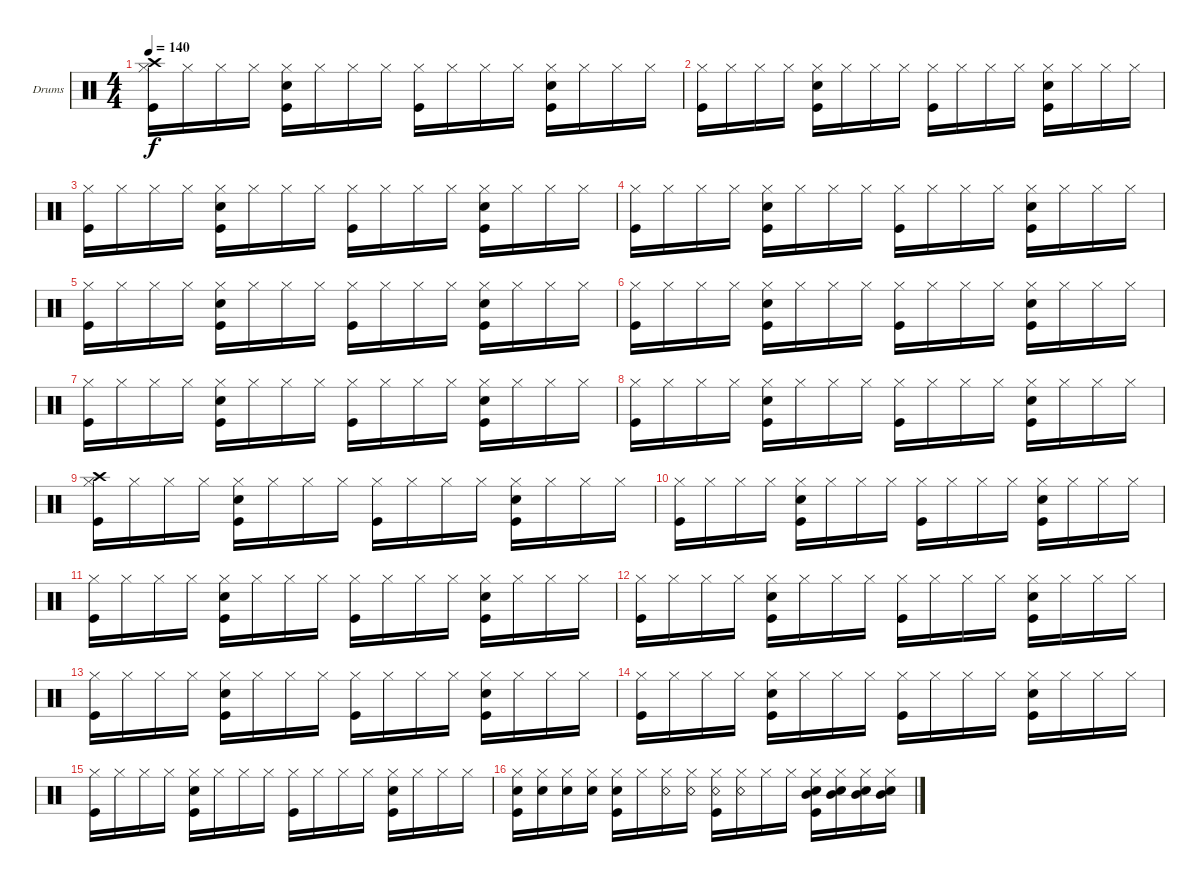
\defaultSystemsLayout 4
\bracketExtendMode groupsimilarinstruments
\firstSystemTrackNameOrientation horizontal
\otherSystemsTrackNameOrientation horizontal
\track ("Drumkit" "Drums") {instrument percussion}
\staff {score}
\articulation defaults
\ts (4 4)
\tempo 140
\clef neutral
\scale
0.472222
\ks c
("Hi-Hat (closed)" "Kick (hit)" "Crash high (hit)").16{dy f} "Hi-Hat (closed)".16 "Hi-Hat (closed)".16 "Hi-Hat (closed)".16 ("Hi-Hat (closed)" "Kick (hit)" "Snare (hit) 2").16 "Hi-Hat (closed)".16 "Hi-Hat (closed)".16 "Hi-Hat (closed)".16 ("Hi-Hat (closed)" "Kick (hit)").16 "Hi-Hat (closed)".16 "Hi-Hat (closed)".16 "Hi-Hat (closed)".16 ("Hi-Hat (closed)" "Kick (hit)" "Snare (hit) 2").16 "Hi-Hat (closed)".16 "Hi-Hat (closed)".16 "Hi-Hat (closed)".16 |
\scale
0.263889 ("Hi-Hat (closed)" "Kick (hit)").16 "Hi-Hat (closed)".16 "Hi-Hat (closed)".16 "Hi-Hat (closed)".16 ("Hi-Hat (closed)" "Kick (hit)" "Snare (hit) 2").16 "Hi-Hat (closed)".16 "Hi-Hat (closed)".16 "Hi-Hat (closed)".16 ("Hi-Hat (closed)" "Kick (hit)").16 "Hi-Hat (closed)".16 "Hi-Hat (closed)".16 "Hi-Hat (closed)".16 ("Hi-Hat (closed)" "Kick (hit)" "Snare (hit) 2").16 "Hi-Hat (closed)".16 "Hi-Hat (closed)".16 "Hi-Hat (closed)".16 |
\scale
0.263889 ("Hi-Hat (closed)" "Kick (hit)").16 "Hi-Hat (closed)".16 "Hi-Hat (closed)".16 "Hi-Hat (closed)".16 ("Hi-Hat (closed)" "Kick (hit)" "Snare (hit) 2").16 "Hi-Hat (closed)".16 "Hi-Hat (closed)".16 "Hi-Hat (closed)".16 ("Hi-Hat (closed)" "Kick (hit)").16 "Hi-Hat (closed)".16 "Hi-Hat (closed)".16 "Hi-Hat (closed)".16 ("Hi-Hat (closed)" "Kick (hit)" "Snare (hit) 2").16 "Hi-Hat (closed)".16 "Hi-Hat (closed)".16 "Hi-Hat (closed)".16 |
\scale
0.333333 ("Hi-Hat (closed)" "Kick (hit)").16 "Hi-Hat (closed)".16 "Hi-Hat (closed)".16 "Hi-Hat (closed)".16 ("Hi-Hat (closed)" "Kick (hit)" "Snare (hit) 2").16 "Hi-Hat (closed)".16 "Hi-Hat (closed)".16 "Hi-Hat (closed)".16 ("Hi-Hat (closed)" "Kick (hit)").16 "Hi-Hat (closed)".16 "Hi-Hat (closed)".16 "Hi-Hat (closed)".16 ("Hi-Hat (closed)" "Kick (hit)" "Snare (hit) 2").16 "Hi-Hat (closed)".16 "Hi-Hat (closed)".16 "Hi-Hat (closed)".16 |
\scale
0.333333 ("Hi-Hat (closed)" "Kick (hit)").16 "Hi-Hat (closed)".16 "Hi-Hat (closed)".16 "Hi-Hat (closed)".16 ("Hi-Hat (closed)" "Kick (hit)" "Snare (hit) 2").16 "Hi-Hat (closed)".16 "Hi-Hat (closed)".16 "Hi-Hat (closed)".16 ("Hi-Hat (closed)" "Kick (hit)").16 "Hi-Hat (closed)".16 "Hi-Hat (closed)".16 "Hi-Hat (closed)".16 ("Hi-Hat (closed)" "Kick (hit)" "Snare (hit) 2").16 "Hi-Hat (closed)".16 "Hi-Hat (closed)".16 "Hi-Hat (closed)".16 |
\scale
0.333333 ("Hi-Hat (closed)" "Kick (hit)").16 "Hi-Hat (closed)".16 "Hi-Hat (closed)".16 "Hi-Hat (closed)".16 ("Hi-Hat (closed)" "Kick (hit)" "Snare (hit) 2").16 "Hi-Hat (closed)".16 "Hi-Hat (closed)".16 "Hi-Hat (closed)".16 ("Hi-Hat (closed)" "Kick (hit)").16 "Hi-Hat (closed)".16 "Hi-Hat (closed)".16 "Hi-Hat (closed)".16 ("Hi-Hat (closed)" "Kick (hit)" "Snare (hit) 2").16 "Hi-Hat (closed)".16 "Hi-Hat (closed)".16 "Hi-Hat (closed)".16 |
\scale
0.333333 ("Hi-Hat (closed)" "Kick (hit)").16 "Hi-Hat (closed)".16 "Hi-Hat (closed)".16 "Hi-Hat (closed)".16 ("Hi-Hat (closed)" "Kick (hit)" "Snare (hit) 2").16 "Hi-Hat (closed)".16 "Hi-Hat (closed)".16 "Hi-Hat (closed)".16 ("Hi-Hat (closed)" "Kick (hit)").16 "Hi-Hat (closed)".16 "Hi-Hat (closed)".16 "Hi-Hat (closed)".16 ("Hi-Hat (closed)" "Kick (hit)" "Snare (hit) 2").16 "Hi-Hat (closed)".16 "Hi-Hat (closed)".16 "Hi-Hat (closed)".16 |
\scale
0.333333 ("Hi-Hat (closed)" "Kick (hit)").16 "Hi-Hat (closed)".16 "Hi-Hat (closed)".16 "Hi-Hat (closed)".16 ("Hi-Hat (closed)" "Kick (hit)" "Snare (hit) 2").16 "Hi-Hat (closed)".16 "Hi-Hat (closed)".16 "Hi-Hat (closed)".16 ("Hi-Hat (closed)" "Kick (hit)").16 "Hi-Hat (closed)".16 "Hi-Hat (closed)".16 "Hi-Hat (closed)".16 ("Hi-Hat (closed)" "Kick (hit)" "Snare (hit) 2").16 "Hi-Hat (closed)".16 "Hi-Hat (closed)".16 "Hi-Hat (closed)".16 |
\scale
0.333333 ("Hi-Hat (closed)" "Kick (hit)" "Crash high (hit)").16 "Hi-Hat (closed)".16 "Hi-Hat (closed)".16 "Hi-Hat (closed)".16 ("Hi-Hat (closed)" "Kick (hit)" "Snare (hit) 2").16 "Hi-Hat (closed)".16 "Hi-Hat (closed)".16 "Hi-Hat (closed)".16 ("Hi-Hat (closed)" "Kick (hit)").16 "Hi-Hat (closed)".16 "Hi-Hat (closed)".16 "Hi-Hat (closed)".16 ("Hi-Hat (closed)" "Kick (hit)" "Snare (hit) 2").16 "Hi-Hat (closed)".16 "Hi-Hat (closed)".16 "Hi-Hat (closed)".16 |
\scale
0.333333 ("Hi-Hat (closed)" "Kick (hit)").16 "Hi-Hat (closed)".16 "Hi-Hat (closed)".16 "Hi-Hat (closed)".16 ("Hi-Hat (closed)" "Kick (hit)" "Snare (hit) 2").16 "Hi-Hat (closed)".16 "Hi-Hat (closed)".16 "Hi-Hat (closed)".16 ("Hi-Hat (closed)" "Kick (hit)").16 "Hi-Hat (closed)".16 "Hi-Hat (closed)".16 "Hi-Hat (closed)".16 ("Hi-Hat (closed)" "Kick (hit)" "Snare (hit) 2").16 "Hi-Hat (closed)".16 "Hi-Hat (closed)".16 "Hi-Hat (closed)".16 |
\scale
0.333333 ("Hi-Hat (closed)" "Kick (hit)").16 "Hi-Hat (closed)".16 "Hi-Hat (closed)".16 "Hi-Hat (closed)".16 ("Hi-Hat (closed)" "Kick (hit)" "Snare (hit) 2").16 "Hi-Hat (closed)".16 "Hi-Hat (closed)".16 "Hi-Hat (closed)".16 ("Hi-Hat (closed)" "Kick (hit)").16 "Hi-Hat (closed)".16 "Hi-Hat (closed)".16 "Hi-Hat (closed)".16 ("Hi-Hat (closed)" "Kick (hit)" "Snare (hit) 2").16 "Hi-Hat (closed)".16 "Hi-Hat (closed)".16 "Hi-Hat (closed)".16 |
\scale
0.333333 ("Hi-Hat (closed)" "Kick (hit)").16 "Hi-Hat (closed)".16 "Hi-Hat (closed)".16 "Hi-Hat (closed)".16 ("Hi-Hat (closed)" "Kick (hit)" "Snare (hit) 2").16 "Hi-Hat (closed)".16 "Hi-Hat (closed)".16 "Hi-Hat (closed)".16 ("Hi-Hat (closed)" "Kick (hit)").16 "Hi-Hat (closed)".16 "Hi-Hat (closed)".16 "Hi-Hat (closed)".16 ("Hi-Hat (closed)" "Kick (hit)" "Snare (hit) 2").16 "Hi-Hat (closed)".16 "Hi-Hat (closed)".16 "Hi-Hat (closed)".16 |
\scale
0.333333 ("Hi-Hat (closed)" "Kick (hit)").16 "Hi-Hat (closed)".16 "Hi-Hat (closed)".16 "Hi-Hat (closed)".16 ("Hi-Hat (closed)" "Kick (hit)" "Snare (hit) 2").16 "Hi-Hat (closed)".16 "Hi-Hat (closed)".16 "Hi-Hat (closed)".16 ("Hi-Hat (closed)" "Kick (hit)").16 "Hi-Hat (closed)".16 "Hi-Hat (closed)".16 "Hi-Hat (closed)".16 ("Hi-Hat (closed)" "Kick (hit)" "Snare (hit) 2").16 "Hi-Hat (closed)".16 "Hi-Hat (closed)".16 "Hi-Hat (closed)".16 |
\scale
0.333333 ("Hi-Hat (closed)" "Kick (hit)").16 "Hi-Hat (closed)".16 "Hi-Hat (closed)".16 "Hi-Hat (closed)".16 ("Hi-Hat (closed)" "Kick (hit)" "Snare (hit) 2").16 "Hi-Hat (closed)".16 "Hi-Hat (closed)".16 "Hi-Hat (closed)".16 ("Hi-Hat (closed)" "Kick (hit)").16 "Hi-Hat (closed)".16 "Hi-Hat (closed)".16 "Hi-Hat (closed)".16 ("Hi-Hat (closed)" "Kick (hit)" "Snare (hit) 2").16 "Hi-Hat (closed)".16 "Hi-Hat (closed)".16 "Hi-Hat (closed)".16 |
\scale
0.333333 ("Hi-Hat (closed)" "Kick (hit)").16 "Hi-Hat (closed)".16 "Hi-Hat (closed)".16 "Hi-Hat (closed)".16 ("Hi-Hat (closed)" "Kick (hit)" "Snare (hit) 2").16 "Hi-Hat (closed)".16 "Hi-Hat (closed)".16 "Hi-Hat (closed)".16 ("Hi-Hat (closed)" "Kick (hit)").16 "Hi-Hat (closed)".16 "Hi-Hat (closed)".16 "Hi-Hat (closed)".16 ("Hi-Hat (closed)" "Kick (hit)" "Snare (hit) 2").16 "Hi-Hat (closed)".16 "Hi-Hat (closed)".16 "Hi-Hat (closed)".16 |
("Hi-Hat (closed)" "Kick (hit)" "Snare (hit) 2").16 ("Hi-Hat (closed)" "Snare (hit) 2").16 ("Hi-Hat (closed)" "Snare (hit) 2").16 ("Hi-Hat (closed)" "Snare (hit) 2").16 ("Hi-Hat (closed)" "Kick (hit)" "Snare (hit) 2").16 "Hi-Hat (closed)".16 ("Hi-Hat (closed)" "Snare (rim shot)").16 ("Hi-Hat (closed)" "Snare (rim shot)").16 ("Hi-Hat (closed)" "Kick (hit)" "Snare (rim shot)").16 ("Hi-Hat (closed)" "Snare (rim shot)").16 "Hi-Hat (closed)".16 "Hi-Hat (closed)".16 ("Hi-Hat (closed)" "Kick (hit)" "Snare (hit) 2" "Mid Tom (hit)").16 ("Hi-Hat (closed)" "Snare (hit) 2" "Mid Tom (hit)").16 ("Hi-Hat (closed)" "Snare (hit) 2" "Mid Tom (hit)").16 ("Hi-Hat (closed)" "Snare (hit) 2" "Mid Tom (hit)").16
